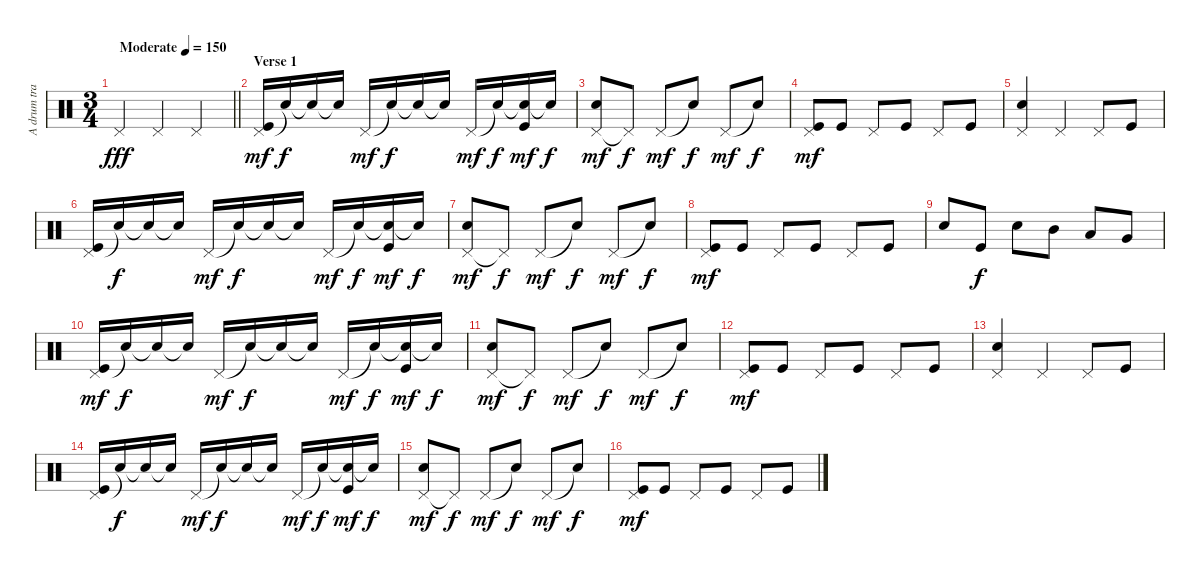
\track ("A drum track I added for fun" "A drum tra") {instrument percussion}
\staff {score}
\articulation defaults
\ts (3 4)
\tempo (150 "Moderate")
\clef neutral
\barLineRight lightlight
\ks c "Pedal Hi-Hat (hit)".4{dy fff} "Pedal Hi-Hat (hit)".4 "Pedal Hi-Hat (hit)".4
|
\section ("" "Verse 1")
("Pedal Hi-Hat (hit)" "Kick (hit)").16{dy mf} "Snare (hit)"{t}.16{dy f} "Snare (hit)"{t}.16 "Snare (hit)"{t}.16 "Pedal Hi-Hat (hit)".16{dy mf} "Snare (hit)"{t}.16{dy f} "Snare (hit)"{t}.16 "Snare (hit)"{t}.16 "Pedal Hi-Hat (hit)".16{dy mf} "Snare (hit)"{t}.16{dy f} ("Snare (hit)"{t} "Kick (hit)").16{dy mf} "Snare (hit)"{t}.16{dy f} |
("Pedal Hi-Hat (hit)" "Electric Snare (hit)").8{dy mf} "Pedal Hi-Hat (hit)"{t}.8{dy f} "Pedal Hi-Hat (hit)".8{dy mf} "Snare (hit)"{t}.8{dy f} "Pedal Hi-Hat (hit)".8{dy mf} "Snare (hit)"{t}.8{dy f} |
("Pedal Hi-Hat (hit)" "Kick (hit)").8{dy mf} "Kick (hit)".8 "Pedal Hi-Hat (hit)".8 "Kick (hit)".8 "Pedal Hi-Hat (hit)".8 "Kick (hit)".8 |
("Pedal Hi-Hat (hit)" "Electric Snare (hit)").4 "Pedal Hi-Hat (hit)".4 "Pedal Hi-Hat (hit)".8 "Kick (hit)".8 |
("Pedal Hi-Hat (hit)" "Kick (hit)").16 "Snare (hit)"{t}.16{dy f} "Snare (hit)"{t}.16 "Snare (hit)"{t}.16 "Pedal Hi-Hat (hit)".16{dy mf} "Snare (hit)"{t}.16{dy f} "Snare (hit)"{t}.16 "Snare (hit)"{t}.16 "Pedal Hi-Hat (hit)".16{dy mf} "Snare (hit)"{t}.16{dy f} ("Snare (hit)"{t} "Kick (hit)").16{dy mf} "Snare (hit)"{t}.16{dy f} |
("Pedal Hi-Hat (hit)" "Electric Snare (hit)").8{dy mf} "Pedal Hi-Hat (hit)"{t}.8{dy f} "Pedal Hi-Hat (hit)".8{dy mf} "Snare (hit)"{t}.8{dy f} "Pedal Hi-Hat (hit)".8{dy mf} "Snare (hit)"{t}.8{dy f} |
("Pedal Hi-Hat (hit)" "Kick (hit)").8{dy mf} "Kick (hit)".8 "Pedal Hi-Hat (hit)".8 "Kick (hit)".8 "Pedal Hi-Hat (hit)".8 "Kick (hit)".8 |
"Electric Snare (hit)".8 "Kick (hit)".8{dy f} "Electric Snare (hit)".8 "Mid Tom (hit)".8 "Low Tom (hit)".8 "Very Low Tom (hit)".8 |
("Pedal Hi-Hat (hit)" "Kick (hit)").16{dy mf} "Snare (hit)"{t}.16{dy f} "Snare (hit)"{t}.16 "Snare (hit)"{t}.16 "Pedal Hi-Hat (hit)".16{dy mf} "Snare (hit)"{t}.16{dy f} "Snare (hit)"{t}.16 "Snare (hit)"{t}.16 "Pedal Hi-Hat (hit)".16{dy mf} "Snare (hit)"{t}.16{dy f} ("Snare (hit)"{t} "Kick (hit)").16{dy mf} "Snare (hit)"{t}.16{dy f} |
("Pedal Hi-Hat (hit)" "Electric Snare (hit)").8{dy mf} "Pedal Hi-Hat (hit)"{t}.8{dy f} "Pedal Hi-Hat (hit)".8{dy mf} "Snare (hit)"{t}.8{dy f} "Pedal Hi-Hat (hit)".8{dy mf} "Snare (hit)"{t}.8{dy f} |
("Pedal Hi-Hat (hit)" "Kick (hit)").8{dy mf} "Kick (hit)".8 "Pedal Hi-Hat (hit)".8 "Kick (hit)".8 "Pedal Hi-Hat (hit)".8 "Kick (hit)".8 |
("Pedal Hi-Hat (hit)" "Electric Snare (hit)").4 "Pedal Hi-Hat (hit)".4 "Pedal Hi-Hat (hit)".8 "Kick (hit)".8 |
("Pedal Hi-Hat (hit)" "Kick (hit)").16 "Snare (hit)"{t}.16{dy f} "Snare (hit)"{t}.16 "Snare (hit)"{t}.16 "Pedal Hi-Hat (hit)".16{dy mf} "Snare (hit)"{t}.16{dy f} "Snare (hit)"{t}.16 "Snare (hit)"{t}.16 "Pedal Hi-Hat (hit)".16{dy mf} "Snare (hit)"{t}.16{dy f} ("Snare (hit)"{t} "Kick (hit)").16{dy mf} "Snare (hit)"{t}.16{dy f} |
("Pedal Hi-Hat (hit)" "Electric Snare (hit)").8{dy mf} "Pedal Hi-Hat (hit)"{t}.8{dy f} "Pedal Hi-Hat (hit)".8{dy mf} "Snare (hit)"{t}.8{dy f} "Pedal Hi-Hat (hit)".8{dy mf} "Snare (hit)"{t}.8{dy f} |
("Pedal Hi-Hat (hit)" "Kick (hit)").8{dy mf} "Kick (hit)".8 "Pedal Hi-Hat (hit)".8 "Kick (hit)".8 "Pedal Hi-Hat (hit)".8 "Kick (hit)".8
